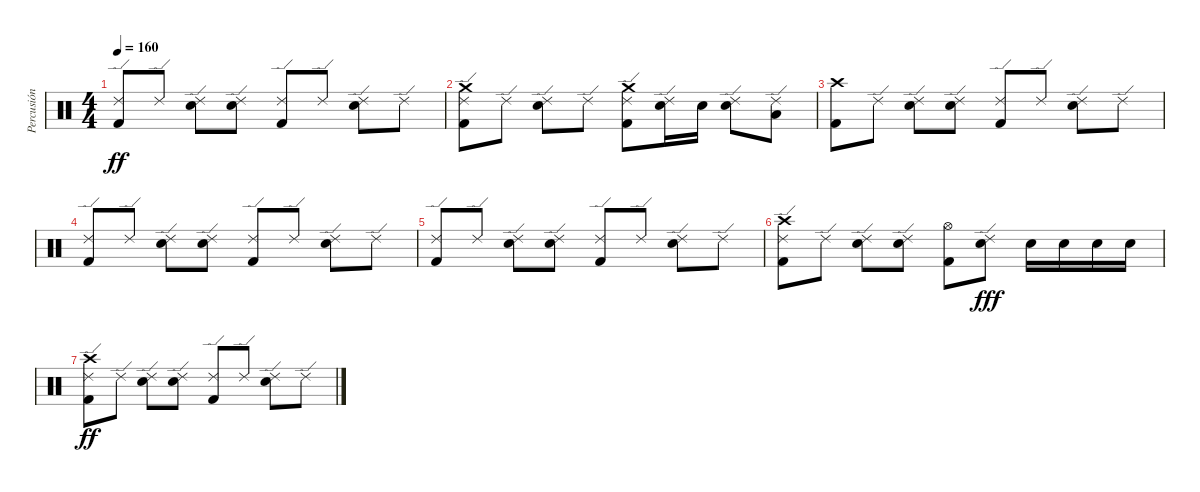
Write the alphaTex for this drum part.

\track ("Percusión" "Percusión") {instrument percussion}
\staff {score}
\articulation defaults
\ts (4 4)
\tempo 160
\clef neutral
\ks c
("Ride (edge) 2" "Kick (hit) 2").8{dy ff} "Ride (edge) 2".8 ("Ride (edge) 2" "Electric Snare (hit)").8 ("Ride (edge) 2" "Electric Snare (hit)").8 ("Ride (edge) 2" "Kick (hit) 2").8 "Ride (edge) 2".8 ("Ride (edge) 2" "Electric Snare (hit)").8 "Ride (edge) 2".8 |
("Ride (edge) 2" "Kick (hit) 2" "Crash medium (hit)").8 "Ride (edge) 2".8 ("Ride (edge) 2" "Electric Snare (hit)").8 "Ride (edge) 2".8 ("Ride (edge) 2" "Kick (hit) 2" "Crash medium (hit)").8 ("Ride (edge) 2" "Electric Snare (hit)").16 "Electric Snare (hit)".16 ("Ride (edge) 2" "Electric Snare (hit)").8 ("Ride (edge) 2" "Low Tom (hit)").8 |
("Crash high (hit)" "Kick (hit) 2").8 "Ride (edge) 2".8 ("Ride (edge) 2" "Electric Snare (hit)").8 ("Ride (edge) 2" "Electric Snare (hit)").8 ("Ride (edge) 2" "Kick (hit) 2").8 "Ride (edge) 2".8 ("Ride (edge) 2" "Electric Snare (hit)").8 "Ride (edge) 2".8 |
("Ride (edge) 2" "Kick (hit) 2").8 "Ride (edge) 2".8 ("Ride (edge) 2" "Electric Snare (hit)").8 ("Ride (edge) 2" "Electric Snare (hit)").8 ("Ride (edge) 2" "Kick (hit) 2").8 "Ride (edge) 2".8 ("Ride (edge) 2" "Electric Snare (hit)").8 "Ride (edge) 2".8 |
("Ride (edge) 2" "Kick (hit) 2").8 "Ride (edge) 2".8 ("Ride (edge) 2" "Electric Snare (hit)").8 ("Ride (edge) 2" "Electric Snare (hit)").8 ("Ride (edge) 2" "Kick (hit) 2").8 "Ride (edge) 2".8 ("Ride (edge) 2" "Electric Snare (hit)").8 "Ride (edge) 2".8 |
("Ride (edge) 2" "Kick (hit) 2" "Crash high (hit)").8 "Ride (edge) 2".8 ("Ride (edge) 2" "Electric Snare (hit)").8 ("Ride (edge) 2" "Electric Snare (hit)").8 ("Hi-Hat (open)" "Kick (hit) 2").8 ("Ride (edge) 2" "Electric Snare (hit)").8{dy fff} "Electric Snare (hit)".16 "Electric Snare (hit)".16 "Electric Snare (hit)".16 "Electric Snare (hit)".16 |
("Ride (edge) 2" "Kick (hit) 2" "Crash high (hit)").8{dy ff} "Ride (edge) 2".8 ("Ride (edge) 2" "Electric Snare (hit)").8 ("Ride (edge) 2" "Electric Snare (hit)").8 ("Ride (edge) 2" "Kick (hit) 2").8 "Ride (edge) 2".8 ("Ride (edge) 2" "Electric Snare (hit)").8 "Ride (edge) 2".8
